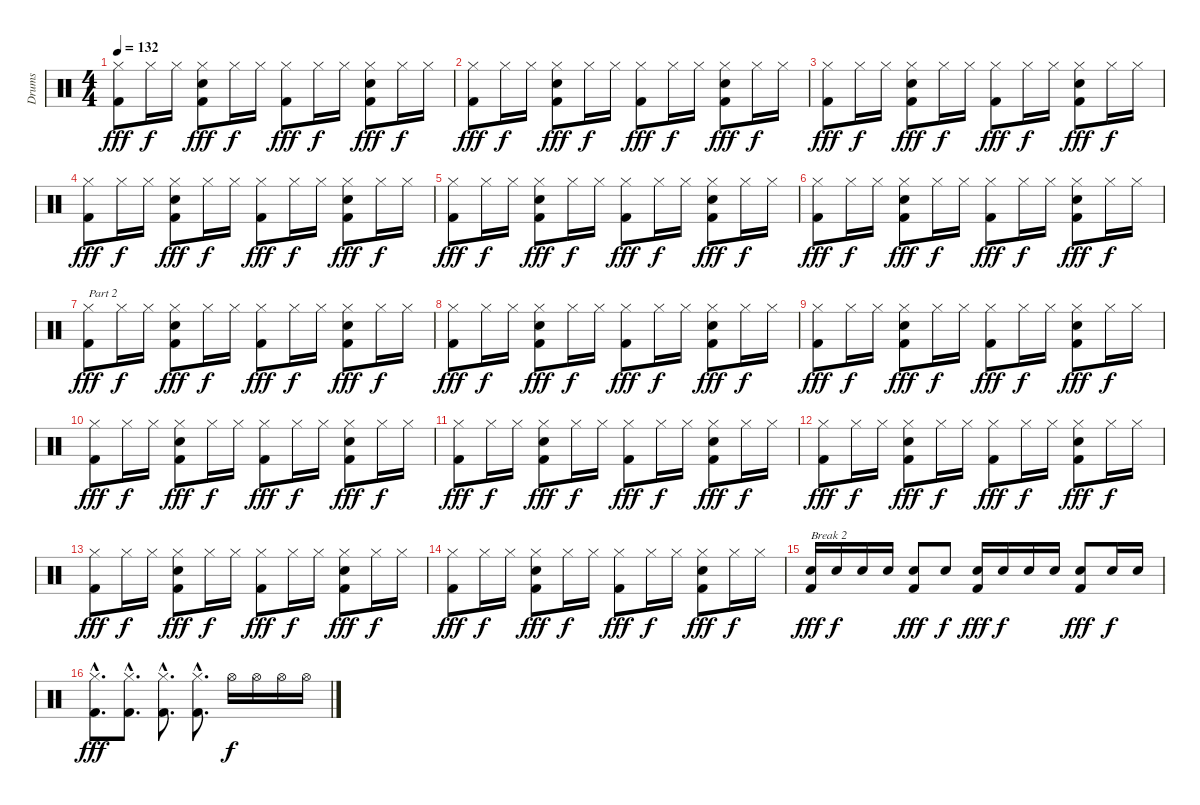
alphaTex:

\track ("Drums" "Drums") {instrument percussion}
\staff {score}
\articulation defaults
\ts (4 4)
\tempo 132
\clef neutral
\ks c
("Hi-Hat (closed)" "Kick (hit) 2").8{dy fff} "Hi-Hat (closed)".16{dy f} "Hi-Hat (closed)".16 ("Hi-Hat (closed)" "Snare (hit) 2" "Kick (hit) 2").8{dy fff} "Hi-Hat (closed)".16{dy f} "Hi-Hat (closed)".16 ("Hi-Hat (closed)" "Kick (hit) 2").8{dy fff} "Hi-Hat (closed)".16{dy f} "Hi-Hat (closed)".16 ("Hi-Hat (closed)" "Snare (hit) 2" "Kick (hit) 2").8{dy fff} "Hi-Hat (closed)".16{dy f} "Hi-Hat (closed)".16 |
("Hi-Hat (closed)" "Kick (hit) 2").8{dy fff} "Hi-Hat (closed)".16{dy f} "Hi-Hat (closed)".16 ("Hi-Hat (closed)" "Snare (hit) 2" "Kick (hit) 2").8{dy fff} "Hi-Hat (closed)".16{dy f} "Hi-Hat (closed)".16 ("Hi-Hat (closed)" "Kick (hit) 2").8{dy fff} "Hi-Hat (closed)".16{dy f} "Hi-Hat (closed)".16 ("Hi-Hat (closed)" "Snare (hit) 2" "Kick (hit) 2").8{dy fff} "Hi-Hat (closed)".16{dy f} "Hi-Hat (closed)".16 |
("Hi-Hat (closed)" "Kick (hit) 2").8{dy fff} "Hi-Hat (closed)".16{dy f} "Hi-Hat (closed)".16 ("Hi-Hat (closed)" "Snare (hit) 2" "Kick (hit) 2").8{dy fff} "Hi-Hat (closed)".16{dy f} "Hi-Hat (closed)".16 ("Hi-Hat (closed)" "Kick (hit) 2").8{dy fff} "Hi-Hat (closed)".16{dy f} "Hi-Hat (closed)".16 ("Hi-Hat (closed)" "Snare (hit) 2" "Kick (hit) 2").8{dy fff} "Hi-Hat (closed)".16{dy f} "Hi-Hat (closed)".16 |
("Hi-Hat (closed)" "Kick (hit) 2").8{dy fff} "Hi-Hat (closed)".16{dy f} "Hi-Hat (closed)".16 ("Hi-Hat (closed)" "Snare (hit) 2" "Kick (hit) 2").8{dy fff} "Hi-Hat (closed)".16{dy f} "Hi-Hat (closed)".16 ("Hi-Hat (closed)" "Kick (hit) 2").8{dy fff} "Hi-Hat (closed)".16{dy f} "Hi-Hat (closed)".16 ("Hi-Hat (closed)" "Snare (hit) 2" "Kick (hit) 2").8{dy fff} "Hi-Hat (closed)".16{dy f} "Hi-Hat (closed)".16 |
("Hi-Hat (closed)" "Kick (hit) 2").8{dy fff} "Hi-Hat (closed)".16{dy f} "Hi-Hat (closed)".16 ("Hi-Hat (closed)" "Snare (hit) 2" "Kick (hit) 2").8{dy fff} "Hi-Hat (closed)".16{dy f} "Hi-Hat (closed)".16 ("Hi-Hat (closed)" "Kick (hit) 2").8{dy fff} "Hi-Hat (closed)".16{dy f} "Hi-Hat (closed)".16 ("Hi-Hat (closed)" "Snare (hit) 2" "Kick (hit) 2").8{dy fff} "Hi-Hat (closed)".16{dy f} "Hi-Hat (closed)".16 |
("Hi-Hat (closed)" "Kick (hit) 2").8{dy fff} "Hi-Hat (closed)".16{dy f} "Hi-Hat (closed)".16 ("Hi-Hat (closed)" "Snare (hit) 2" "Kick (hit) 2").8{dy fff} "Hi-Hat (closed)".16{dy f} "Hi-Hat (closed)".16 ("Hi-Hat (closed)" "Kick (hit) 2").8{dy fff} "Hi-Hat (closed)".16{dy f} "Hi-Hat (closed)".16 ("Hi-Hat (closed)" "Snare (hit) 2" "Kick (hit) 2").8{dy fff} "Hi-Hat (closed)".16{dy f} "Hi-Hat (closed)".16 |
("Hi-Hat (closed)" "Kick (hit) 2").8{txt "Part 2" dy fff} "Hi-Hat (closed)".16{dy f} "Hi-Hat (closed)".16 ("Hi-Hat (closed)" "Snare (hit) 2" "Kick (hit) 2").8{dy fff} "Hi-Hat (closed)".16{dy f} "Hi-Hat (closed)".16 ("Hi-Hat (closed)" "Kick (hit) 2").8{dy fff} "Hi-Hat (closed)".16{dy f} "Hi-Hat (closed)".16 ("Hi-Hat (closed)" "Snare (hit) 2" "Kick (hit) 2").8{dy fff} "Hi-Hat (closed)".16{dy f} "Hi-Hat (closed)".16 |
("Hi-Hat (closed)" "Kick (hit) 2").8{dy fff} "Hi-Hat (closed)".16{dy f} "Hi-Hat (closed)".16 ("Hi-Hat (closed)" "Snare (hit) 2" "Kick (hit) 2").8{dy fff} "Hi-Hat (closed)".16{dy f} "Hi-Hat (closed)".16 ("Hi-Hat (closed)" "Kick (hit) 2").8{dy fff} "Hi-Hat (closed)".16{dy f} "Hi-Hat (closed)".16 ("Hi-Hat (closed)" "Snare (hit) 2" "Kick (hit) 2").8{dy fff} "Hi-Hat (closed)".16{dy f} "Hi-Hat (closed)".16 |
("Hi-Hat (closed)" "Kick (hit) 2").8{dy fff} "Hi-Hat (closed)".16{dy f} "Hi-Hat (closed)".16 ("Hi-Hat (closed)" "Snare (hit) 2" "Kick (hit) 2").8{dy fff} "Hi-Hat (closed)".16{dy f} "Hi-Hat (closed)".16 ("Hi-Hat (closed)" "Kick (hit) 2").8{dy fff} "Hi-Hat (closed)".16{dy f} "Hi-Hat (closed)".16 ("Hi-Hat (closed)" "Snare (hit) 2" "Kick (hit) 2").8{dy fff} "Hi-Hat (closed)".16{dy f} "Hi-Hat (closed)".16 |
("Hi-Hat (closed)" "Kick (hit) 2").8{dy fff} "Hi-Hat (closed)".16{dy f} "Hi-Hat (closed)".16 ("Hi-Hat (closed)" "Snare (hit) 2" "Kick (hit) 2").8{dy fff} "Hi-Hat (closed)".16{dy f} "Hi-Hat (closed)".16 ("Hi-Hat (closed)" "Kick (hit) 2").8{dy fff} "Hi-Hat (closed)".16{dy f} "Hi-Hat (closed)".16 ("Hi-Hat (closed)" "Snare (hit) 2" "Kick (hit) 2").8{dy fff} "Hi-Hat (closed)".16{dy f} "Hi-Hat (closed)".16 |
("Hi-Hat (closed)" "Kick (hit) 2").8{dy fff} "Hi-Hat (closed)".16{dy f} "Hi-Hat (closed)".16 ("Hi-Hat (closed)" "Snare (hit) 2" "Kick (hit) 2").8{dy fff} "Hi-Hat (closed)".16{dy f} "Hi-Hat (closed)".16 ("Hi-Hat (closed)" "Kick (hit) 2").8{dy fff} "Hi-Hat (closed)".16{dy f} "Hi-Hat (closed)".16 ("Hi-Hat (closed)" "Snare (hit) 2" "Kick (hit) 2").8{dy fff} "Hi-Hat (closed)".16{dy f} "Hi-Hat (closed)".16 |
("Hi-Hat (closed)" "Kick (hit) 2").8{dy fff} "Hi-Hat (closed)".16{dy f} "Hi-Hat (closed)".16 ("Hi-Hat (closed)" "Snare (hit) 2" "Kick (hit) 2").8{dy fff} "Hi-Hat (closed)".16{dy f} "Hi-Hat (closed)".16 ("Hi-Hat (closed)" "Kick (hit) 2").8{dy fff} "Hi-Hat (closed)".16{dy f} "Hi-Hat (closed)".16 ("Hi-Hat (closed)" "Snare (hit) 2" "Kick (hit) 2").8{dy fff} "Hi-Hat (closed)".16{dy f} "Hi-Hat (closed)".16 |
("Hi-Hat (closed)" "Kick (hit) 2").8{dy fff} "Hi-Hat (closed)".16{dy f} "Hi-Hat (closed)".16 ("Hi-Hat (closed)" "Snare (hit) 2" "Kick (hit) 2").8{dy fff} "Hi-Hat (closed)".16{dy f} "Hi-Hat (closed)".16 ("Hi-Hat (closed)" "Kick (hit) 2").8{dy fff} "Hi-Hat (closed)".16{dy f} "Hi-Hat (closed)".16 ("Hi-Hat (closed)" "Snare (hit) 2" "Kick (hit) 2").8{dy fff} "Hi-Hat (closed)".16{dy f} "Hi-Hat (closed)".16 |
("Hi-Hat (closed)" "Kick (hit) 2").8{dy fff} "Hi-Hat (closed)".16{dy f} "Hi-Hat (closed)".16 ("Hi-Hat (closed)" "Snare (hit) 2" "Kick (hit) 2").8{dy fff} "Hi-Hat (closed)".16{dy f} "Hi-Hat (closed)".16 ("Hi-Hat (closed)" "Kick (hit) 2").8{dy fff} "Hi-Hat (closed)".16{dy f} "Hi-Hat (closed)".16 ("Hi-Hat (closed)" "Snare (hit) 2" "Kick (hit) 2").8{dy fff} "Hi-Hat (closed)".16{dy f} "Hi-Hat (closed)".16 |
("Snare (hit) 2" "Kick (hit) 2").16{txt "Break 2" dy fff} "Snare (hit) 2".16{dy f} "Snare (hit) 2".16 "Snare (hit) 2".16 ("Snare (hit) 2" "Kick (hit) 2").8{dy fff} "Snare (hit) 2".8{dy f} ("Snare (hit) 2" "Kick (hit) 2").16{dy fff} "Snare (hit) 2".16{dy f} "Snare (hit) 2".16 "Snare (hit) 2".16 ("Snare (hit) 2" "Kick (hit) 2").8{dy fff} "Snare (hit) 2".16{dy f} "Snare (hit) 2".16 |
("Hi-Hat (closed)"{hac} "Kick (hit) 2"{hac}).8{d dy fff} ("Hi-Hat (closed)"{hac} "Kick (hit) 2"{hac}).8{d} ("Hi-Hat (closed)"{hac} "Kick (hit) 2"{hac}).8{d} ("Hi-Hat (closed)"{hac} "Kick (hit) 2"{hac}).8{d} "Hi-Hat (open)".16{dy f} "Hi-Hat (open)".16 "Hi-Hat (open)".16 "Hi-Hat (open)".16
